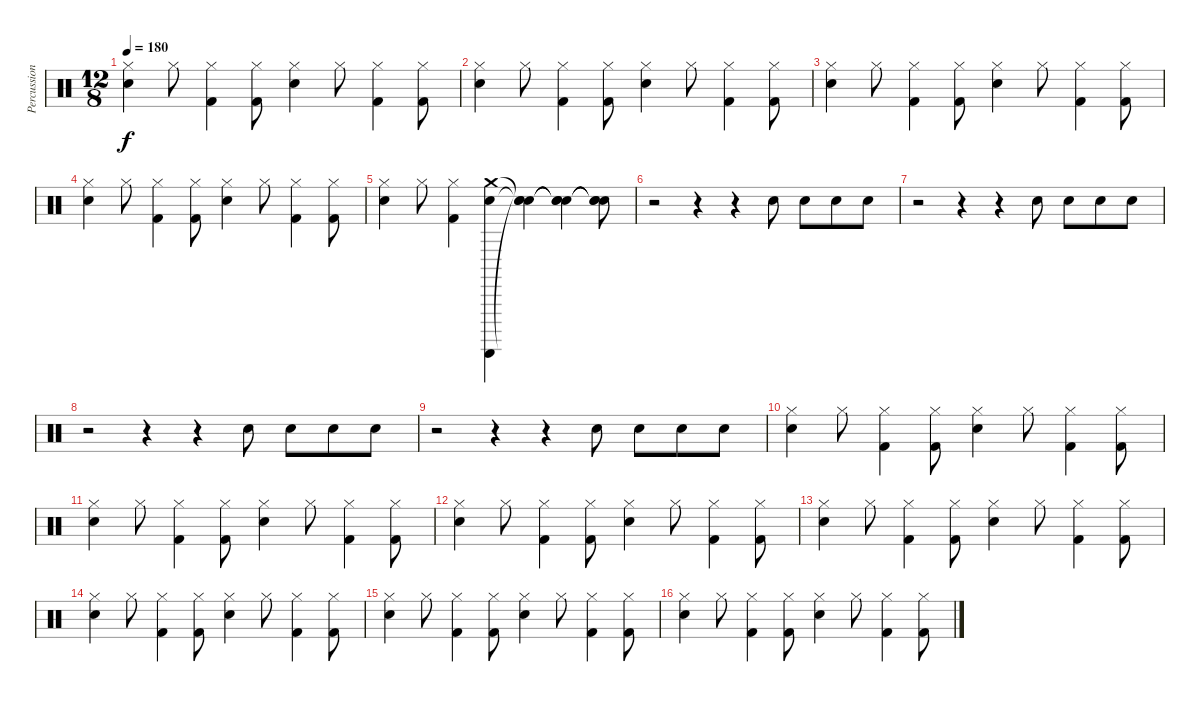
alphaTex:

\track ("Percussion" "Percussion") {instrument percussion}
\staff {score}
\articulation defaults
\ts (12 8)
\tempo 180
\clef neutral
\ks c
("Snare (hit) 2" "Hi-Hat (closed)").4{dy f} "Hi-Hat (closed)".8 ("Kick (hit) 2" "Hi-Hat (closed)").4 ("Kick (hit) 2" "Hi-Hat (closed)").8 ("Snare (hit) 2" "Hi-Hat (closed)").4 "Hi-Hat (closed)".8 ("Kick (hit) 2" "Hi-Hat (closed)").4 ("Kick (hit) 2" "Hi-Hat (closed)").8 |
("Snare (hit) 2" "Hi-Hat (closed)").4 "Hi-Hat (closed)".8 ("Kick (hit) 2" "Hi-Hat (closed)").4 ("Kick (hit) 2" "Hi-Hat (closed)").8 ("Snare (hit) 2" "Hi-Hat (closed)").4 "Hi-Hat (closed)".8 ("Kick (hit) 2" "Hi-Hat (closed)").4 ("Kick (hit) 2" "Hi-Hat (closed)").8 |
("Snare (hit) 2" "Hi-Hat (closed)").4 "Hi-Hat (closed)".8 ("Kick (hit) 2" "Hi-Hat (closed)").4 ("Kick (hit) 2" "Hi-Hat (closed)").8 ("Snare (hit) 2" "Hi-Hat (closed)").4 "Hi-Hat (closed)".8 ("Kick (hit) 2" "Hi-Hat (closed)").4 ("Kick (hit) 2" "Hi-Hat (closed)").8 |
("Snare (hit) 2" "Hi-Hat (closed)").4 "Hi-Hat (closed)".8 ("Kick (hit) 2" "Hi-Hat (closed)").4 ("Kick (hit) 2" "Hi-Hat (closed)").8 ("Snare (hit) 2" "Hi-Hat (closed)").4 "Hi-Hat (closed)".8 ("Kick (hit) 2" "Hi-Hat (closed)").4 ("Kick (hit) 2" "Hi-Hat (closed)").8 |
("Snare (hit) 2" "Hi-Hat (closed)").4 "Hi-Hat (closed)".8 ("Kick (hit) 2" "Hi-Hat (closed)").4 ("Guiro (scrap-return)" "Snare (hit) 2" "Crash medium (hit)").4 ("Snare (hit)"{t} "Snare (hit)"{t} "Snare (hit)"{t}).4 ("Snare (hit)"{t} "Snare (hit)"{t} "Snare (hit)"{t}).4 ("Snare (hit)"{t} "Snare (hit)"{t} "Snare (hit)"{t}).8 |
r.2 r.4 r.4 "Snare (hit) 2".8 "Snare (hit) 2".8 "Snare (hit) 2".8 "Snare (hit) 2".8 |
r.2 r.4 r.4 "Snare (hit) 2".8 "Snare (hit) 2".8 "Snare (hit) 2".8 "Snare (hit) 2".8 |
r.2 r.4 r.4 "Snare (hit) 2".8 "Snare (hit) 2".8 "Snare (hit) 2".8 "Snare (hit) 2".8 |
r.2 r.4 r.4 "Snare (hit) 2".8 "Snare (hit) 2".8 "Snare (hit) 2".8 "Snare (hit) 2".8 |
("Snare (hit) 2" "Hi-Hat (closed)").4 "Hi-Hat (closed)".8 ("Kick (hit) 2" "Hi-Hat (closed)").4 ("Kick (hit) 2" "Hi-Hat (closed)").8 ("Snare (hit) 2" "Hi-Hat (closed)").4 "Hi-Hat (closed)".8 ("Kick (hit) 2" "Hi-Hat (closed)").4 ("Kick (hit) 2" "Hi-Hat (closed)").8 |
("Snare (hit) 2" "Hi-Hat (closed)").4 "Hi-Hat (closed)".8 ("Kick (hit) 2" "Hi-Hat (closed)").4 ("Kick (hit) 2" "Hi-Hat (closed)").8 ("Snare (hit) 2" "Hi-Hat (closed)").4 "Hi-Hat (closed)".8 ("Kick (hit) 2" "Hi-Hat (closed)").4 ("Kick (hit) 2" "Hi-Hat (closed)").8 |
("Snare (hit) 2" "Hi-Hat (closed)").4 "Hi-Hat (closed)".8 ("Kick (hit) 2" "Hi-Hat (closed)").4 ("Kick (hit) 2" "Hi-Hat (closed)").8 ("Snare (hit) 2" "Hi-Hat (closed)").4 "Hi-Hat (closed)".8 ("Kick (hit) 2" "Hi-Hat (closed)").4 ("Kick (hit) 2" "Hi-Hat (closed)").8 |
("Snare (hit) 2" "Hi-Hat (closed)").4 "Hi-Hat (closed)".8 ("Kick (hit) 2" "Hi-Hat (closed)").4 ("Kick (hit) 2" "Hi-Hat (closed)").8 ("Snare (hit) 2" "Hi-Hat (closed)").4 "Hi-Hat (closed)".8 ("Kick (hit) 2" "Hi-Hat (closed)").4 ("Kick (hit) 2" "Hi-Hat (closed)").8 |
("Snare (hit) 2" "Hi-Hat (closed)").4 "Hi-Hat (closed)".8 ("Kick (hit) 2" "Hi-Hat (closed)").4 ("Kick (hit) 2" "Hi-Hat (closed)").8 ("Snare (hit) 2" "Hi-Hat (closed)").4 "Hi-Hat (closed)".8 ("Kick (hit) 2" "Hi-Hat (closed)").4 ("Kick (hit) 2" "Hi-Hat (closed)").8 |
("Snare (hit) 2" "Hi-Hat (closed)").4 "Hi-Hat (closed)".8 ("Kick (hit) 2" "Hi-Hat (closed)").4 ("Kick (hit) 2" "Hi-Hat (closed)").8 ("Snare (hit) 2" "Hi-Hat (closed)").4 "Hi-Hat (closed)".8 ("Kick (hit) 2" "Hi-Hat (closed)").4 ("Kick (hit) 2" "Hi-Hat (closed)").8 |
("Snare (hit) 2" "Hi-Hat (closed)").4 "Hi-Hat (closed)".8 ("Kick (hit) 2" "Hi-Hat (closed)").4 ("Kick (hit) 2" "Hi-Hat (closed)").8 ("Snare (hit) 2" "Hi-Hat (closed)").4 "Hi-Hat (closed)".8 ("Kick (hit) 2" "Hi-Hat (closed)").4 ("Kick (hit) 2" "Hi-Hat (closed)").8
